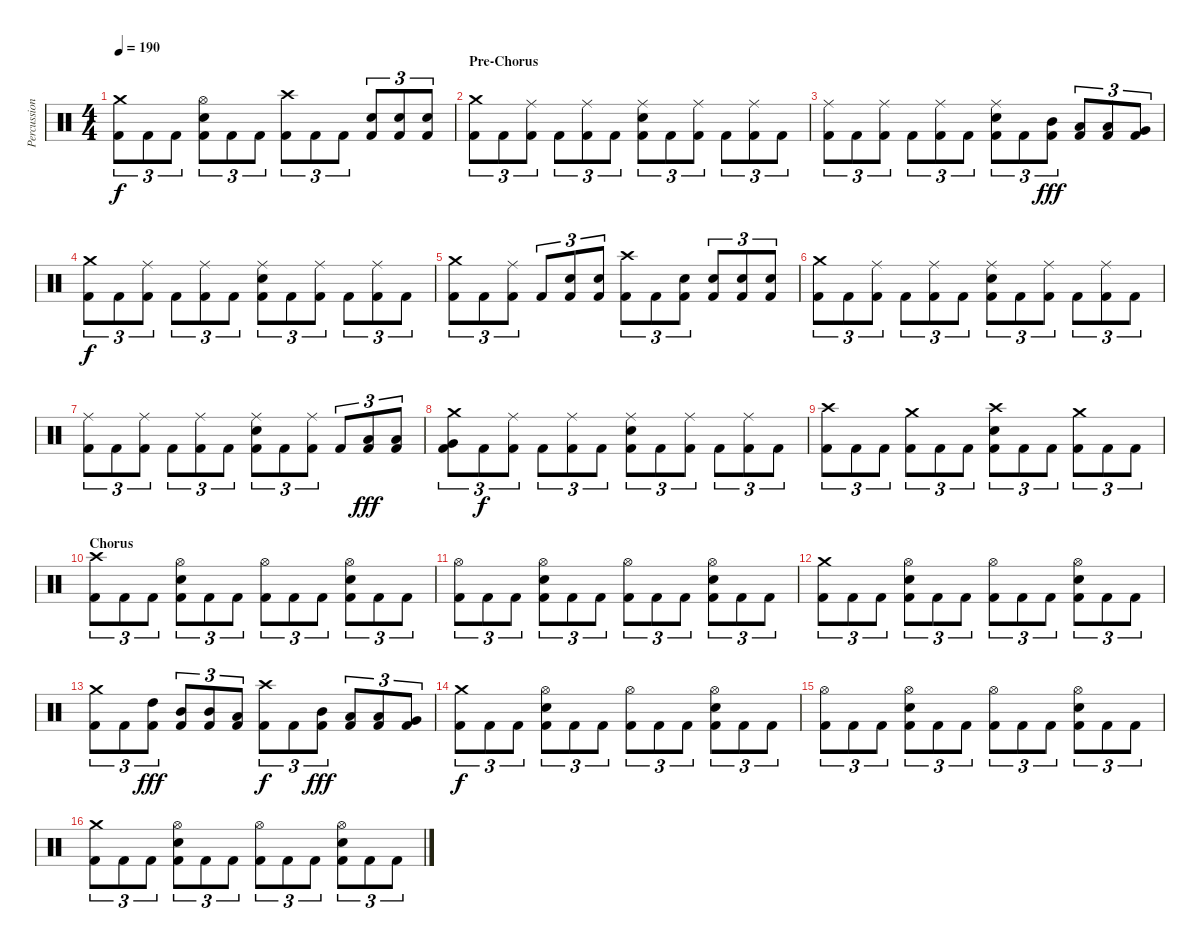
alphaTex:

\track ("Percussion" "Percussion") {instrument percussion}
\staff {score}
\articulation defaults
\ts (4 4)
\tempo 190
\clef neutral
\ks c
("Kick (hit) 2" "Crash medium (hit)").8{tu (3 2) dy f} "Kick (hit) 2".8{tu (3 2)} "Kick (hit) 2".8{tu (3 2)} ("Kick (hit) 2" "Electric Snare (hit)" "Hi-Hat (open)").8{tu (3 2)} "Kick (hit) 2".8{tu (3 2)} "Kick (hit) 2".8{tu (3 2)} ("Kick (hit) 2" "Crash high (hit)").8{tu (3 2)} "Kick (hit) 2".8{tu (3 2)} "Kick (hit) 2".8{tu (3 2)} ("Kick (hit) 2" "Electric Snare (hit)").8{tu (3 2)} ("Kick (hit) 2" "Electric Snare (hit)").8{tu (3 2)} ("Kick (hit) 2" "Electric Snare (hit)").8{tu (3 2)} |
\section ("" "Pre-Chorus")
("Kick (hit) 2" "Crash medium (hit)").8{tu (3 2)} "Kick (hit) 2".8{tu (3 2)} ("Kick (hit) 2" "Ride (middle)").8{tu (3 2)} "Kick (hit) 2".8{tu (3 2)} ("Kick (hit) 2" "Ride (middle)").8{tu (3 2)} "Kick (hit) 2".8{tu (3 2)} ("Kick (hit) 2" "Electric Snare (hit)" "Ride (middle)").8{tu (3 2)} "Kick (hit) 2".8{tu (3 2)} ("Kick (hit) 2" "Ride (middle)").8{tu (3 2)} "Kick (hit) 2".8{tu (3 2)} ("Kick (hit) 2" "Ride (middle)").8{tu (3 2)} "Kick (hit) 2".8{tu (3 2)} |
("Kick (hit) 2" "Ride (middle)").8{tu (3 2)} "Kick (hit) 2".8{tu (3 2)} ("Kick (hit) 2" "Ride (middle)").8{tu (3 2)} "Kick (hit) 2".8{tu (3 2)} ("Kick (hit) 2" "Ride (middle)").8{tu (3 2)} "Kick (hit) 2".8{tu (3 2)} ("Kick (hit) 2" "Electric Snare (hit)" "Ride (middle)").8{tu (3 2)} "Kick (hit) 2".8{tu (3 2)} ("Kick (hit) 2" "Mid Tom (hit)").8{tu (3 2) dy fff} ("Kick (hit) 2" "Low Tom (hit)").8{tu (3 2)} ("Kick (hit) 2" "Low Tom (hit)").8{tu (3 2)} ("Kick (hit) 2" "Very Low Tom (hit)").8{tu (3 2)} |
("Kick (hit) 2" "Crash medium (hit)").8{tu (3 2) dy f} "Kick (hit) 2".8{tu (3 2)} ("Kick (hit) 2" "Ride (middle)").8{tu (3 2)} "Kick (hit) 2".8{tu (3 2)} ("Kick (hit) 2" "Ride (middle)").8{tu (3 2)} "Kick (hit) 2".8{tu (3 2)} ("Kick (hit) 2" "Electric Snare (hit)" "Ride (middle)").8{tu (3 2)} "Kick (hit) 2".8{tu (3 2)} ("Kick (hit) 2" "Ride (middle)").8{tu (3 2)} "Kick (hit) 2".8{tu (3 2)} ("Kick (hit) 2" "Ride (middle)").8{tu (3 2)} "Kick (hit) 2".8{tu (3 2)} |
("Kick (hit) 2" "Crash medium (hit)").8{tu (3 2)} "Kick (hit) 2".8{tu (3 2)} ("Kick (hit) 2" "Ride (middle)").8{tu (3 2)} "Kick (hit) 2".8{tu (3 2)} ("Kick (hit) 2" "Electric Snare (hit)").8{tu (3 2)} ("Kick (hit) 2" "Electric Snare (hit)").8{tu (3 2)} ("Kick (hit) 2" "Crash high (hit)").8{tu (3 2)} "Kick (hit) 2".8{tu (3 2)} ("Kick (hit) 2" "Electric Snare (hit)").8{tu (3 2)} ("Kick (hit) 2" "Electric Snare (hit)").8{tu (3 2)} ("Kick (hit) 2" "Electric Snare (hit)").8{tu (3 2)} ("Kick (hit) 2" "Electric Snare (hit)").8{tu (3 2)} |
("Kick (hit) 2" "Crash medium (hit)").8{tu (3 2)} "Kick (hit) 2".8{tu (3 2)} ("Kick (hit) 2" "Ride (middle)").8{tu (3 2)} "Kick (hit) 2".8{tu (3 2)} ("Kick (hit) 2" "Ride (middle)").8{tu (3 2)} "Kick (hit) 2".8{tu (3 2)} ("Kick (hit) 2" "Electric Snare (hit)" "Ride (middle)").8{tu (3 2)} "Kick (hit) 2".8{tu (3 2)} ("Kick (hit) 2" "Ride (middle)").8{tu (3 2)} "Kick (hit) 2".8{tu (3 2)} ("Kick (hit) 2" "Ride (middle)").8{tu (3 2)} "Kick (hit) 2".8{tu (3 2)} |
("Kick (hit) 2" "Ride (middle)").8{tu (3 2)} "Kick (hit) 2".8{tu (3 2)} ("Kick (hit) 2" "Ride (middle)").8{tu (3 2)} "Kick (hit) 2".8{tu (3 2)} ("Kick (hit) 2" "Ride (middle)").8{tu (3 2)} "Kick (hit) 2".8{tu (3 2)} ("Kick (hit) 2" "Electric Snare (hit)" "Ride (middle)").8{tu (3 2)} "Kick (hit) 2".8{tu (3 2)} ("Kick (hit) 2" "Ride (middle)").8{tu (3 2)} "Kick (hit) 2".8{tu (3 2)} ("Kick (hit) 2" "Low Tom (hit)").8{tu (3 2) dy fff} ("Kick (hit) 2" "Low Tom (hit)").8{tu (3 2)} |
("Kick (hit) 2" "Very Low Tom (hit)" "Crash medium (hit)").8{tu (3 2)} "Kick (hit) 2".8{tu (3 2) dy f} ("Kick (hit) 2" "Ride (middle)").8{tu (3 2)} "Kick (hit) 2".8{tu (3 2)} ("Kick (hit) 2" "Ride (middle)").8{tu (3 2)} "Kick (hit) 2".8{tu (3 2)} ("Kick (hit) 2" "Electric Snare (hit)" "Ride (middle)").8{tu (3 2)} "Kick (hit) 2".8{tu (3 2)} ("Kick (hit) 2" "Ride (middle)").8{tu (3 2)} "Kick (hit) 2".8{tu (3 2)} ("Kick (hit) 2" "Ride (middle)").8{tu (3 2)} "Kick (hit) 2".8{tu (3 2)} |
("Kick (hit) 2" "Crash high (hit)").8{tu (3 2)} "Kick (hit) 2".8{tu (3 2)} "Kick (hit) 2".8{tu (3 2)} ("Kick (hit) 2" "Crash medium (hit)").8{tu (3 2)} "Kick (hit) 2".8{tu (3 2)} "Kick (hit) 2".8{tu (3 2)} ("Kick (hit) 2" "Electric Snare (hit)" "Crash high (hit)").8{tu (3 2)} "Kick (hit) 2".8{tu (3 2)} "Kick (hit) 2".8{tu (3 2)} ("Kick (hit) 2" "Crash medium (hit)").8{tu (3 2)} "Kick (hit) 2".8{tu (3 2)} "Kick (hit) 2".8{tu (3 2)} |
\section ("" "Chorus")
("Kick (hit) 2" "Crash high (hit)").8{tu (3 2)} "Kick (hit) 2".8{tu (3 2)} "Kick (hit) 2".8{tu (3 2)} ("Kick (hit) 2" "Electric Snare (hit)" "Hi-Hat (open)").8{tu (3 2)} "Kick (hit) 2".8{tu (3 2)} "Kick (hit) 2".8{tu (3 2)} ("Kick (hit) 2" "Hi-Hat (open)").8{tu (3 2)} "Kick (hit) 2".8{tu (3 2)} "Kick (hit) 2".8{tu (3 2)} ("Kick (hit) 2" "Electric Snare (hit)" "Hi-Hat (open)").8{tu (3 2)} "Kick (hit) 2".8{tu (3 2)} "Kick (hit) 2".8{tu (3 2)} |
("Kick (hit) 2" "Hi-Hat (open)").8{tu (3 2)} "Kick (hit) 2".8{tu (3 2)} "Kick (hit) 2".8{tu (3 2)} ("Kick (hit) 2" "Electric Snare (hit)" "Hi-Hat (open)").8{tu (3 2)} "Kick (hit) 2".8{tu (3 2)} "Kick (hit) 2".8{tu (3 2)} ("Kick (hit) 2" "Hi-Hat (open)").8{tu (3 2)} "Kick (hit) 2".8{tu (3 2)} "Kick (hit) 2".8{tu (3 2)} ("Kick (hit) 2" "Electric Snare (hit)" "Hi-Hat (open)").8{tu (3 2)} "Kick (hit) 2".8{tu (3 2)} "Kick (hit) 2".8{tu (3 2)} |
("Kick (hit) 2" "Crash medium (hit)").8{tu (3 2)} "Kick (hit) 2".8{tu (3 2)} "Kick (hit) 2".8{tu (3 2)} ("Kick (hit) 2" "Electric Snare (hit)" "Hi-Hat (open)").8{tu (3 2)} "Kick (hit) 2".8{tu (3 2)} "Kick (hit) 2".8{tu (3 2)} ("Kick (hit) 2" "Hi-Hat (open)").8{tu (3 2)} "Kick (hit) 2".8{tu (3 2)} "Kick (hit) 2".8{tu (3 2)} ("Kick (hit) 2" "Electric Snare (hit)" "Hi-Hat (open)").8{tu (3 2)} "Kick (hit) 2".8{tu (3 2)} "Kick (hit) 2".8{tu (3 2)} |
("Kick (hit) 2" "Crash medium (hit)").8{tu (3 2)} "Kick (hit) 2".8{tu (3 2)} ("Kick (hit) 2" "High Tom (hit)").8{tu (3 2) dy fff} ("Kick (hit) 2" "Mid Tom (hit)").8{tu (3 2)} ("Kick (hit) 2" "Mid Tom (hit)").8{tu (3 2)} ("Kick (hit) 2" "Low Tom (hit)").8{tu (3 2)} ("Kick (hit) 2" "Crash high (hit)").8{tu (3 2) dy f} "Kick (hit) 2".8{tu (3 2)} ("Kick (hit) 2" "Mid Tom (hit)").8{tu (3 2) dy fff} ("Kick (hit) 2" "Low Tom (hit)").8{tu (3 2)} ("Kick (hit) 2" "Low Tom (hit)").8{tu (3 2)} ("Kick (hit) 2" "Very Low Tom (hit)").8{tu (3 2)} |
("Kick (hit) 2" "Crash medium (hit)").8{tu (3 2) dy f} "Kick (hit) 2".8{tu (3 2)} "Kick (hit) 2".8{tu (3 2)} ("Kick (hit) 2" "Electric Snare (hit)" "Hi-Hat (open)").8{tu (3 2)} "Kick (hit) 2".8{tu (3 2)} "Kick (hit) 2".8{tu (3 2)} ("Kick (hit) 2" "Hi-Hat (open)").8{tu (3 2)} "Kick (hit) 2".8{tu (3 2)} "Kick (hit) 2".8{tu (3 2)} ("Kick (hit) 2" "Electric Snare (hit)" "Hi-Hat (open)").8{tu (3 2)} "Kick (hit) 2".8{tu (3 2)} "Kick (hit) 2".8{tu (3 2)} |
("Kick (hit) 2" "Hi-Hat (open)").8{tu (3 2)} "Kick (hit) 2".8{tu (3 2)} "Kick (hit) 2".8{tu (3 2)} ("Kick (hit) 2" "Electric Snare (hit)" "Hi-Hat (open)").8{tu (3 2)} "Kick (hit) 2".8{tu (3 2)} "Kick (hit) 2".8{tu (3 2)} ("Kick (hit) 2" "Hi-Hat (open)").8{tu (3 2)} "Kick (hit) 2".8{tu (3 2)} "Kick (hit) 2".8{tu (3 2)} ("Kick (hit) 2" "Electric Snare (hit)" "Hi-Hat (open)").8{tu (3 2)} "Kick (hit) 2".8{tu (3 2)} "Kick (hit) 2".8{tu (3 2)} |
("Kick (hit) 2" "Crash medium (hit)").8{tu (3 2)} "Kick (hit) 2".8{tu (3 2)} "Kick (hit) 2".8{tu (3 2)} ("Kick (hit) 2" "Electric Snare (hit)" "Hi-Hat (open)").8{tu (3 2)} "Kick (hit) 2".8{tu (3 2)} "Kick (hit) 2".8{tu (3 2)} ("Kick (hit) 2" "Hi-Hat (open)").8{tu (3 2)} "Kick (hit) 2".8{tu (3 2)} "Kick (hit) 2".8{tu (3 2)} ("Kick (hit) 2" "Electric Snare (hit)" "Hi-Hat (open)").8{tu (3 2)} "Kick (hit) 2".8{tu (3 2)} "Kick (hit) 2".8{tu (3 2)}
